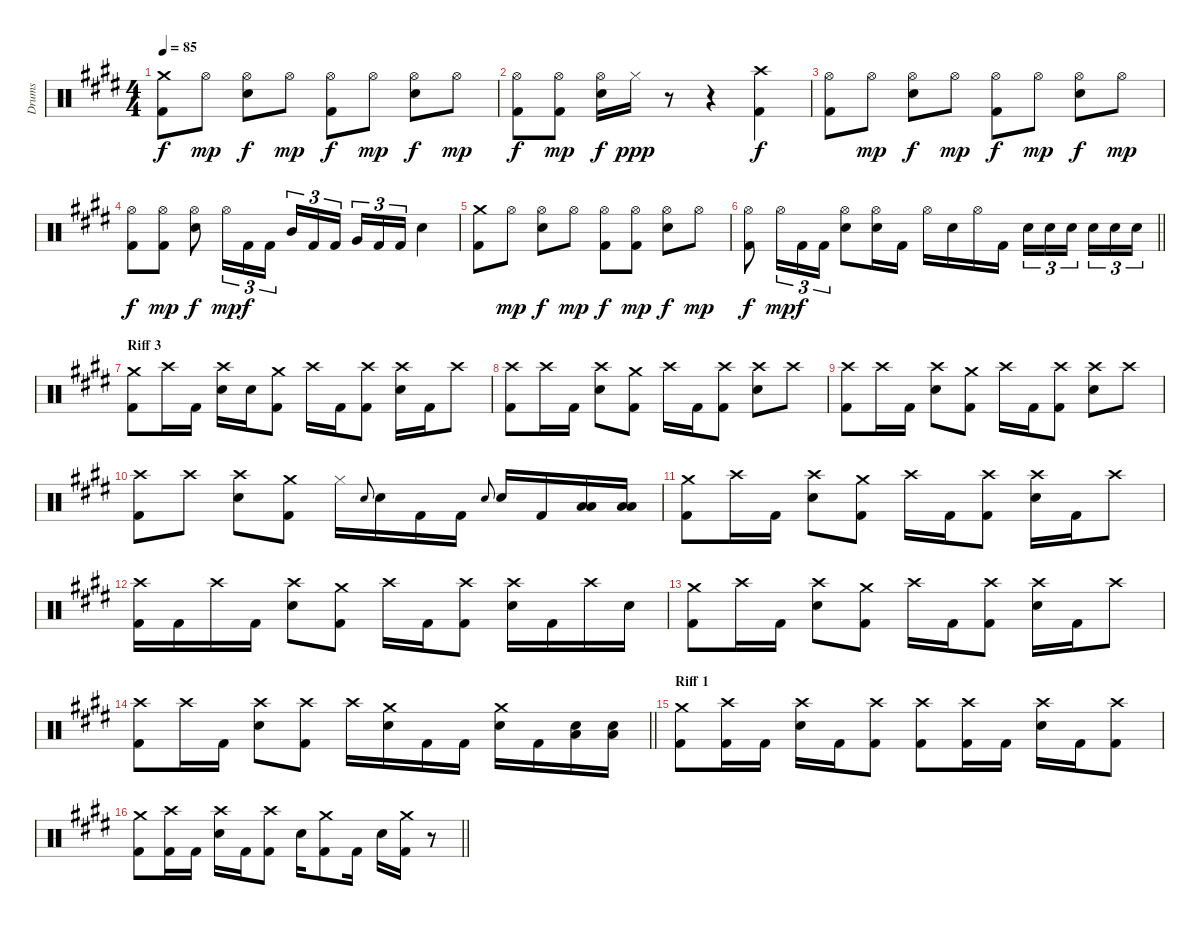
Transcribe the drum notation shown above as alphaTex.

\track ("Drums" "Drums") {instrument percussion}
\staff {score}
\articulation defaults
\ts (4 4)
\tempo 85
\clef neutral
\ks e
("Kick (hit) 2" "Crash medium (hit)").8{dy f} "Hi-Hat (open)".8{dy mp} ("Hi-Hat (open)" "Electric Snare (hit)").8{dy f} "Hi-Hat (open)".8{dy mp} ("Hi-Hat (open)" "Kick (hit) 2").8{dy f} "Hi-Hat (open)".8{dy mp} ("Hi-Hat (open)" "Electric Snare (hit)").8{dy f} "Hi-Hat (open)".8{dy mp} |
("Hi-Hat (open)" "Kick (hit) 2").8{dy f} ("Hi-Hat (open)" "Kick (hit) 2").8{dy mp} ("Hi-Hat (open)" "Electric Snare (hit)").16{dy f} "Hi-Hat (closed)".16{dy ppp} r.8 r.4 ("Kick (hit) 2" "Crash high (hit)").4{dy f} |
("Kick (hit) 2" "Hi-Hat (open)").8 "Hi-Hat (open)".8{dy mp} ("Hi-Hat (open)" "Electric Snare (hit)").8{dy f} "Hi-Hat (open)".8{dy mp} ("Hi-Hat (open)" "Kick (hit) 2").8{dy f} "Hi-Hat (open)".8{dy mp} ("Hi-Hat (open)" "Electric Snare (hit)").8{dy f} "Hi-Hat (open)".8{dy mp} |
("Hi-Hat (open)" "Kick (hit) 2").8{dy f} ("Hi-Hat (open)" "Kick (hit) 2").8{dy mp} ("Hi-Hat (open)" "Electric Snare (hit)").8{dy f} "Hi-Hat (open)".16{tu (3 2) dy mp} "Kick (hit) 2".16{tu (3 2) dy f} "Kick (hit) 2".16{tu (3 2)} "Mid Tom (hit)".16{tu (3 2)} "Kick (hit) 2".16{tu (3 2)} "Kick (hit) 2".16{tu (3 2) beam splitsecondary} "Very Low Tom (hit)".16{tu (3 2)} "Kick (hit) 2".16{tu (3 2)} "Kick (hit) 2".16{tu (3 2)} "Electric Snare (hit)".4 |
("Kick (hit) 2" "Crash medium (hit)").8 "Hi-Hat (open)".8{dy mp} ("Hi-Hat (open)" "Electric Snare (hit)").8{dy f} "Hi-Hat (open)".8{dy mp} ("Hi-Hat (open)" "Kick (hit) 2").8{dy f} ("Hi-Hat (open)" "Kick (hit) 2").8{dy mp} ("Hi-Hat (open)" "Electric Snare (hit)").8{dy f} "Hi-Hat (open)".8{dy mp} |
\barLineRight lightlight
("Kick (hit) 2" "Hi-Hat (open)").8{dy f} "Hi-Hat (open)".16{tu (3 2) dy mp} "Kick (hit) 2".16{tu (3 2) dy f} "Kick (hit) 2".16{tu (3 2)} ("Electric Snare (hit)" "Hi-Hat (open)").8 ("Electric Snare (hit)" "Hi-Hat (open)").16 "Kick (hit) 2".16 "Hi-Hat (open)".16 "Electric Snare (hit)".16 "Hi-Hat (open)".16 "Kick (hit) 2".16 "Electric Snare (hit)".16{tu (3 2)} "Electric Snare (hit)".16{tu (3 2)} "Electric Snare (hit)".16{tu (3 2) beam splitsecondary} "Electric Snare (hit)".16{tu (3 2)} "Electric Snare (hit)".16{tu (3 2)} "Electric Snare (hit)".16{tu (3 2)} |
\section ("" "Riff 3")
("Crash medium (hit)" "Kick (hit) 2").8 "Crash high (hit)".16 "Kick (hit) 2".16 ("Electric Snare (hit)" "Crash high (hit)").16 "Electric Snare (hit)".16 ("Kick (hit) 2" "Crash medium (hit)").8 "Crash high (hit)".16 "Kick (hit) 2".16 ("Kick (hit) 2" "Crash high (hit)").8 ("Electric Snare (hit)" "Crash high (hit)").16 "Kick (hit) 2".16 "Crash high (hit)".8 |
("Crash high (hit)" "Kick (hit) 2").8 "Crash high (hit)".16 "Kick (hit) 2".16 ("Electric Snare (hit)" "Crash high (hit)").8 ("Kick (hit) 2" "Crash medium (hit)").8 "Crash high (hit)".16 "Kick (hit) 2".16 ("Kick (hit) 2" "Crash high (hit)").8 ("Electric Snare (hit)" "Crash high (hit)").8 "Crash high (hit)".8 |
("Crash high (hit)" "Kick (hit) 2").8 "Crash high (hit)".16 "Kick (hit) 2".16 ("Electric Snare (hit)" "Crash high (hit)").8 ("Kick (hit) 2" "Crash medium (hit)").8 "Crash high (hit)".16 "Kick (hit) 2".16 ("Kick (hit) 2" "Crash high (hit)").8 ("Electric Snare (hit)" "Crash high (hit)").8 "Crash high (hit)".8 |
("Crash high (hit)" "Kick (hit) 2").8 "Crash high (hit)".8 ("Electric Snare (hit)" "Crash high (hit)").8 ("Kick (hit) 2" "Crash medium (hit)").8 "Hi-Hat (closed)".16 "Electric Snare (hit)".8{gr onbeat} "Electric Snare (hit)".16 "Kick (hit) 2".16 "Kick (hit) 2".16 "Electric Snare (hit)".8{gr onbeat} "Electric Snare (hit)".16 "Kick (hit) 2".16 ("Low Tom (hit)" "Low Floor Tom (hit)").16 ("Low Tom (hit)" "Low Floor Tom (hit)").16 |
("Crash medium (hit)" "Kick (hit) 2").8 "Crash high (hit)".16 "Kick (hit) 2".16 ("Electric Snare (hit)" "Crash high (hit)").8 ("Kick (hit) 2" "Crash medium (hit)").8 "Crash high (hit)".16 "Kick (hit) 2".16 ("Kick (hit) 2" "Crash high (hit)").8 ("Electric Snare (hit)" "Crash high (hit)").16 "Kick (hit) 2".16 "Crash high (hit)".8 |
("Crash high (hit)" "Kick (hit) 2").16 "Kick (hit) 2".16 "Crash high (hit)".16 "Kick (hit) 2".16 ("Electric Snare (hit)" "Crash high (hit)").8 ("Kick (hit) 2" "Crash medium (hit)").8 "Crash high (hit)".16 "Kick (hit) 2".16 ("Kick (hit) 2" "Crash high (hit)").8 ("Electric Snare (hit)" "Crash high (hit)").16 "Kick (hit) 2".16 "Crash high (hit)".16 "Electric Snare (hit)".16 |
("Crash medium (hit)" "Kick (hit) 2").8 "Crash high (hit)".16 "Kick (hit) 2".16 ("Electric Snare (hit)" "Crash high (hit)").8 ("Kick (hit) 2" "Crash medium (hit)").8 "Crash high (hit)".16 "Kick (hit) 2".16 ("Kick (hit) 2" "Crash high (hit)").8 ("Electric Snare (hit)" "Crash high (hit)").16 "Kick (hit) 2".16 "Crash high (hit)".8 |
\barLineRight lightlight
("Crash high (hit)" "Kick (hit) 2").8 "Crash high (hit)".16 "Kick (hit) 2".16 ("Electric Snare (hit)" "Crash high (hit)").8 ("Kick (hit) 2" "Crash high (hit)").8 "Crash high (hit)".16 ("Electric Snare (hit)" "Crash medium (hit)").16 "Kick (hit) 2".16 "Kick (hit) 2".16 ("Electric Snare (hit)" "Crash medium (hit)").16 "Kick (hit) 2".16 ("Electric Snare (hit)" "Low Floor Tom (hit)").16 ("Electric Snare (hit)" "Low Floor Tom (hit)").16 |
\section ("" "Riff 1")
("Kick (hit) 2" "Crash medium (hit)").8 ("Kick (hit) 2" "Crash high (hit)").16 "Kick (hit) 2".16 ("Electric Snare (hit)" "Crash high (hit)").16 "Kick (hit) 2".16 ("Kick (hit) 2" "Crash high (hit)").8 ("Kick (hit) 2" "Crash high (hit)").8 ("Kick (hit) 2" "Crash high (hit)").16 "Kick (hit) 2".16 ("Electric Snare (hit)" "Crash high (hit)").16 "Kick (hit) 2".16 ("Kick (hit) 2" "Crash high (hit)").8 |
\barLineRight lightlight
("Kick (hit) 2" "Crash medium (hit)").8 ("Kick (hit) 2" "Crash high (hit)").16 "Kick (hit) 2".16 ("Electric Snare (hit)" "Crash high (hit)").16 "Kick (hit) 2".16 ("Kick (hit) 2" "Crash high (hit)").8 "Electric Snare (hit)".16 ("Kick (hit) 2" "Crash medium (hit)").8 "Kick (hit) 2".16 "Electric Snare (hit)".16 ("Kick (hit) 2" "Crash medium (hit)").16 r.8
